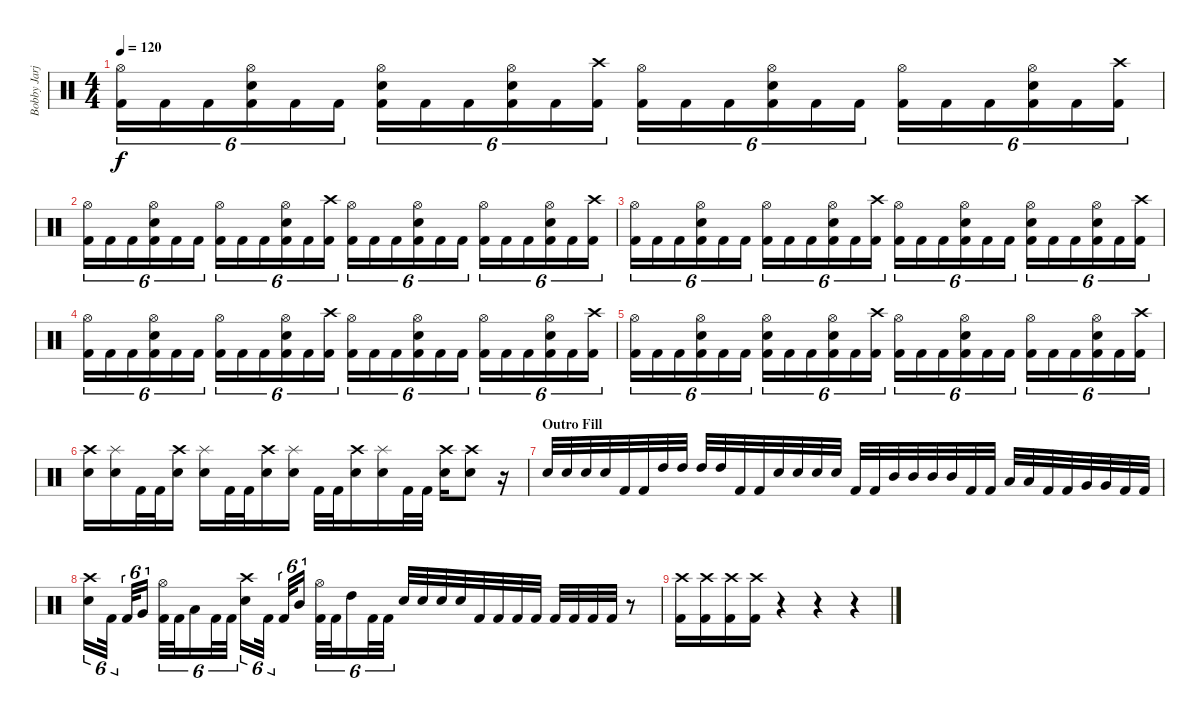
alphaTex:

\track ("Bobby Jarjombek" "Bobby Jarj") {instrument percussion}
\staff {score}
\articulation defaults
\ts (4 4)
\tempo 120
\clef neutral
\ks c
("Kick (hit) 2" "Hi-Hat (open)").16{tu (6 4) dy f} "Kick (hit) 2".16{tu (6 4)} "Kick (hit) 2".16{tu (6 4)} ("Kick (hit) 2" "Hi-Hat (open)" "Electric Snare (hit)").16{tu (6 4)} "Kick (hit) 2".16{tu (6 4)} "Kick (hit) 2".16{tu (6 4)} ("Kick (hit) 2" "Hi-Hat (open)" "Electric Snare (hit)").16{tu (6 4)} "Kick (hit) 2".16{tu (6 4)} "Kick (hit) 2".16{tu (6 4)} ("Kick (hit) 2" "Hi-Hat (open)" "Electric Snare (hit)").16{tu (6 4)} "Kick (hit) 2".16{tu (6 4)} ("Kick (hit) 2" "Crash high (hit)").16{tu (6 4)} ("Kick (hit) 2" "Hi-Hat (open)").16{tu (6 4)} "Kick (hit) 2".16{tu (6 4)} "Kick (hit) 2".16{tu (6 4)} ("Kick (hit) 2" "Hi-Hat (open)" "Electric Snare (hit)").16{tu (6 4)} "Kick (hit) 2".16{tu (6 4)} "Kick (hit) 2".16{tu (6 4)} ("Kick (hit) 2" "Hi-Hat (open)").16{tu (6 4)} "Kick (hit) 2".16{tu (6 4)} "Kick (hit) 2".16{tu (6 4)} ("Kick (hit) 2" "Hi-Hat (open)" "Electric Snare (hit)").16{tu (6 4)} "Kick (hit) 2".16{tu (6 4)} ("Kick (hit) 2" "Crash high (hit)").16{tu (6 4)} |
("Kick (hit) 2" "Hi-Hat (open)").16{tu (6 4)} "Kick (hit) 2".16{tu (6 4)} "Kick (hit) 2".16{tu (6 4)} ("Kick (hit) 2" "Hi-Hat (open)" "Electric Snare (hit)").16{tu (6 4)} "Kick (hit) 2".16{tu (6 4)} "Kick (hit) 2".16{tu (6 4)} ("Kick (hit) 2" "Hi-Hat (open)").16{tu (6 4)} "Kick (hit) 2".16{tu (6 4)} "Kick (hit) 2".16{tu (6 4)} ("Kick (hit) 2" "Hi-Hat (open)" "Electric Snare (hit)").16{tu (6 4)} "Kick (hit) 2".16{tu (6 4)} ("Kick (hit) 2" "Crash high (hit)").16{tu (6 4)} ("Kick (hit) 2" "Hi-Hat (open)").16{tu (6 4)} "Kick (hit) 2".16{tu (6 4)} "Kick (hit) 2".16{tu (6 4)} ("Kick (hit) 2" "Hi-Hat (open)" "Electric Snare (hit)").16{tu (6 4)} "Kick (hit) 2".16{tu (6 4)} "Kick (hit) 2".16{tu (6 4)} ("Kick (hit) 2" "Hi-Hat (open)").16{tu (6 4)} "Kick (hit) 2".16{tu (6 4)} "Kick (hit) 2".16{tu (6 4)} ("Kick (hit) 2" "Hi-Hat (open)" "Electric Snare (hit)").16{tu (6 4)} "Kick (hit) 2".16{tu (6 4)} ("Kick (hit) 2" "Crash high (hit)").16{tu (6 4)} |
("Kick (hit) 2" "Hi-Hat (open)").16{tu (6 4)} "Kick (hit) 2".16{tu (6 4)} "Kick (hit) 2".16{tu (6 4)} ("Kick (hit) 2" "Hi-Hat (open)" "Electric Snare (hit)").16{tu (6 4)} "Kick (hit) 2".16{tu (6 4)} "Kick (hit) 2".16{tu (6 4)} ("Kick (hit) 2" "Hi-Hat (open)").16{tu (6 4)} "Kick (hit) 2".16{tu (6 4)} "Kick (hit) 2".16{tu (6 4)} ("Kick (hit) 2" "Hi-Hat (open)" "Electric Snare (hit)").16{tu (6 4)} "Kick (hit) 2".16{tu (6 4)} ("Kick (hit) 2" "Crash high (hit)").16{tu (6 4)} ("Kick (hit) 2" "Hi-Hat (open)").16{tu (6 4)} "Kick (hit) 2".16{tu (6 4)} "Kick (hit) 2".16{tu (6 4)} ("Kick (hit) 2" "Hi-Hat (open)" "Electric Snare (hit)").16{tu (6 4)} "Kick (hit) 2".16{tu (6 4)} "Kick (hit) 2".16{tu (6 4)} ("Kick (hit) 2" "Hi-Hat (open)" "Electric Snare (hit)").16{tu (6 4)} "Kick (hit) 2".16{tu (6 4)} "Kick (hit) 2".16{tu (6 4)} ("Kick (hit) 2" "Hi-Hat (open)" "Electric Snare (hit)").16{tu (6 4)} "Kick (hit) 2".16{tu (6 4)} ("Kick (hit) 2" "Crash high (hit)").16{tu (6 4)} |
("Kick (hit) 2" "Hi-Hat (open)").16{tu (6 4)} "Kick (hit) 2".16{tu (6 4)} "Kick (hit) 2".16{tu (6 4)} ("Kick (hit) 2" "Hi-Hat (open)" "Electric Snare (hit)").16{tu (6 4)} "Kick (hit) 2".16{tu (6 4)} "Kick (hit) 2".16{tu (6 4)} ("Kick (hit) 2" "Hi-Hat (open)").16{tu (6 4)} "Kick (hit) 2".16{tu (6 4)} "Kick (hit) 2".16{tu (6 4)} ("Kick (hit) 2" "Hi-Hat (open)" "Electric Snare (hit)").16{tu (6 4)} "Kick (hit) 2".16{tu (6 4)} ("Kick (hit) 2" "Crash high (hit)").16{tu (6 4)} ("Kick (hit) 2" "Hi-Hat (open)").16{tu (6 4)} "Kick (hit) 2".16{tu (6 4)} "Kick (hit) 2".16{tu (6 4)} ("Kick (hit) 2" "Hi-Hat (open)" "Electric Snare (hit)").16{tu (6 4)} "Kick (hit) 2".16{tu (6 4)} "Kick (hit) 2".16{tu (6 4)} ("Kick (hit) 2" "Hi-Hat (open)").16{tu (6 4)} "Kick (hit) 2".16{tu (6 4)} "Kick (hit) 2".16{tu (6 4)} ("Kick (hit) 2" "Hi-Hat (open)" "Electric Snare (hit)").16{tu (6 4)} "Kick (hit) 2".16{tu (6 4)} ("Kick (hit) 2" "Crash high (hit)").16{tu (6 4)} |
("Kick (hit) 2" "Hi-Hat (open)").16{tu (6 4)} "Kick (hit) 2".16{tu (6 4)} "Kick (hit) 2".16{tu (6 4)} ("Kick (hit) 2" "Hi-Hat (open)" "Electric Snare (hit)").16{tu (6 4)} "Kick (hit) 2".16{tu (6 4)} "Kick (hit) 2".16{tu (6 4)} ("Kick (hit) 2" "Hi-Hat (open)" "Electric Snare (hit)").16{tu (6 4)} "Kick (hit) 2".16{tu (6 4)} "Kick (hit) 2".16{tu (6 4)} ("Kick (hit) 2" "Hi-Hat (open)" "Electric Snare (hit)").16{tu (6 4)} "Kick (hit) 2".16{tu (6 4)} ("Kick (hit) 2" "Crash high (hit)").16{tu (6 4)} ("Kick (hit) 2" "Hi-Hat (open)").16{tu (6 4)} "Kick (hit) 2".16{tu (6 4)} "Kick (hit) 2".16{tu (6 4)} ("Kick (hit) 2" "Hi-Hat (open)" "Electric Snare (hit)").16{tu (6 4)} "Kick (hit) 2".16{tu (6 4)} "Kick (hit) 2".16{tu (6 4)} ("Kick (hit) 2" "Hi-Hat (open)").16{tu (6 4)} "Kick (hit) 2".16{tu (6 4)} "Kick (hit) 2".16{tu (6 4)} ("Kick (hit) 2" "Hi-Hat (open)" "Electric Snare (hit)").16{tu (6 4)} "Kick (hit) 2".16{tu (6 4)} ("Kick (hit) 2" "Crash high (hit)").16{tu (6 4)} |
("Crash high (hit)" "Electric Snare (hit)").16 ("Splash (hit)" "Electric Snare (hit)").16 "Kick (hit) 2".32 "Kick (hit) 2".32 ("Crash high (hit)" "Electric Snare (hit)").16 ("Splash (hit)" "Electric Snare (hit)").16 "Kick (hit) 2".32 "Kick (hit) 2".32 ("Crash high (hit)" "Electric Snare (hit)").16 ("Splash (hit)" "Electric Snare (hit)").16 "Kick (hit) 2".32 "Kick (hit) 2".32 ("Crash high (hit)" "Electric Snare (hit)").16 ("Splash (hit)" "Electric Snare (hit)").16 "Kick (hit) 2".32 "Kick (hit) 2".32 ("Crash high (hit)" "Electric Snare (hit)").16 ("Crash high (hit)" "Electric Snare (hit)").8 r.16 |
\section ("" "Outro Fill")
"Electric Snare (hit)".32 "Electric Snare (hit)".32 "Electric Snare (hit)".32 "Electric Snare (hit)".32 "Kick (hit) 2".32 "Kick (hit) 2".32 "High Tom (hit)".32 "High Tom (hit)".32 "High Tom (hit)".32 "High Tom (hit)".32 "Kick (hit) 2".32 "Kick (hit) 2".32 "Electric Snare (hit)".32 "Electric Snare (hit)".32 "Electric Snare (hit)".32 "Electric Snare (hit)".32 "Kick (hit) 2".32 "Kick (hit) 2".32 "Mid Tom (hit)".32 "Mid Tom (hit)".32 "Mid Tom (hit)".32 "Mid Tom (hit)".32 "Kick (hit) 2".32 "Kick (hit) 2".32 "Low Tom (hit)".32 "Low Tom (hit)".32 "Kick (hit) 2".32 "Kick (hit) 2".32 "Very Low Tom (hit)".32 "Very Low Tom (hit)".32 "Kick (hit) 2".32 "Kick (hit) 2".32 |
("Crash high (hit)" "Electric Snare (hit)").16{tu (6 4)} "Kick (hit) 2".32{tu (6 4)} "Kick (hit) 2".32{tu (6 4)} "Very Low Tom (hit)".16{tu (6 4)} ("Kick (hit) 2" "Hi-Hat (open)").32{tu (6 4)} "Kick (hit) 2".32{tu (6 4)} "Low Tom (hit)".16{tu (6 4)} "Kick (hit) 2".32{tu (6 4)} "Kick (hit) 2".32{tu (6 4)} ("Crash high (hit)" "Electric Snare (hit)").16{tu (6 4)} "Kick (hit) 2".32{tu (6 4)} "Kick (hit) 2".32{tu (6 4)} "Mid Tom (hit)".16{tu (6 4)} ("Kick (hit) 2" "Hi-Hat (open)").32{tu (6 4)} "Kick (hit) 2".32{tu (6 4)} "High Tom (hit)".16{tu (6 4)} "Kick (hit) 2".32{tu (6 4)} "Kick (hit) 2".32{tu (6 4)} "Electric Snare (hit)".32 "Electric Snare (hit)".32 "Electric Snare (hit)".32 "Electric Snare (hit)".32 "Kick (hit) 2".32 "Kick (hit) 2".32 "Kick (hit) 2".32 "Kick (hit) 2".32 "Kick (hit) 2".32 "Kick (hit) 2".32 "Kick (hit) 2".32 "Kick (hit) 2".32 r.8 |
("Kick (hit) 2" "Crash high (hit)").16 ("Kick (hit) 2" "Crash high (hit)").16 ("Kick (hit) 2" "Crash high (hit)").16 ("Kick (hit) 2" "Crash high (hit)").16 r.4 r.4 r.4
